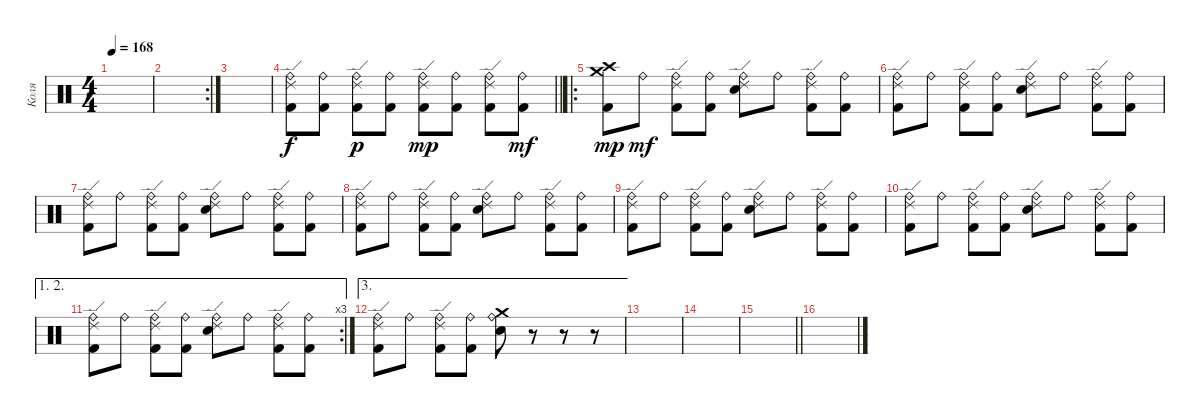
\track ("Коля" "Коля") {instrument percussion}
\staff {score}
\articulation defaults
\ts (4 4)
\tempo 168
\clef neutral
\ks c
|
\rc 2
|
|
\barLineRight lightlight
("Kick (hit) 2" "Ride (bell)" "Ride (edge) 2").8 ("Kick (hit) 2" "Ride (bell)").8 ("Kick (hit) 2" "Ride (bell)" "Ride (edge) 2").8{dy p} ("Kick (hit) 2" "Ride (bell)").8 ("Kick (hit) 2" "Ride (bell)" "Ride (edge) 2").8{dy mp} ("Kick (hit) 2" "Ride (bell)").8 ("Kick (hit) 2" "Ride (bell)" "Ride (edge) 2").8 ("Kick (hit) 2" "Ride (bell)").8{dy mf} |
\ro
\section ("" "")
("Kick (hit) 2" "Crash medium (hit)" "Crash high (hit)").8{dy mp} "Ride (bell)".8{dy mf} ("Kick (hit) 2" "Ride (bell)" "Ride (edge) 2").8 ("Kick (hit) 2" "Ride (bell)").8 ("Snare (hit) 2" "Ride (bell)" "Ride (edge) 2").8 "Ride (bell)".8 ("Kick (hit) 2" "Ride (bell)" "Ride (edge) 2").8 ("Kick (hit) 2" "Ride (bell)").8 |
("Kick (hit) 2" "Ride (bell)" "Ride (edge) 2").8 "Ride (bell)".8 ("Kick (hit) 2" "Ride (bell)" "Ride (edge) 2").8 ("Kick (hit) 2" "Ride (bell)").8 ("Snare (hit) 2" "Ride (bell)" "Ride (edge) 2").8 "Ride (bell)".8 ("Kick (hit) 2" "Ride (bell)" "Ride (edge) 2").8 ("Kick (hit) 2" "Ride (bell)").8 |
("Kick (hit) 2" "Ride (bell)" "Ride (edge) 2").8 "Ride (bell)".8 ("Kick (hit) 2" "Ride (bell)" "Ride (edge) 2").8 ("Kick (hit) 2" "Ride (bell)").8 ("Snare (hit) 2" "Ride (bell)" "Ride (edge) 2").8 "Ride (bell)".8 ("Kick (hit) 2" "Ride (bell)" "Ride (edge) 2").8 ("Kick (hit) 2" "Ride (bell)").8 |
("Kick (hit) 2" "Ride (bell)" "Ride (edge) 2").8 "Ride (bell)".8 ("Kick (hit) 2" "Ride (bell)" "Ride (edge) 2").8 ("Kick (hit) 2" "Ride (bell)").8 ("Snare (hit) 2" "Ride (bell)" "Ride (edge) 2").8 "Ride (bell)".8 ("Kick (hit) 2" "Ride (bell)" "Ride (edge) 2").8 ("Kick (hit) 2" "Ride (bell)").8 |
("Kick (hit) 2" "Ride (bell)" "Ride (edge) 2").8 "Ride (bell)".8 ("Kick (hit) 2" "Ride (bell)" "Ride (edge) 2").8 ("Kick (hit) 2" "Ride (bell)").8 ("Snare (hit) 2" "Ride (bell)" "Ride (edge) 2").8 "Ride (bell)".8 ("Kick (hit) 2" "Ride (bell)" "Ride (edge) 2").8 ("Kick (hit) 2" "Ride (bell)").8 |
("Kick (hit) 2" "Ride (bell)" "Ride (edge) 2").8 "Ride (bell)".8 ("Kick (hit) 2" "Ride (bell)" "Ride (edge) 2").8 ("Kick (hit) 2" "Ride (bell)").8 ("Snare (hit) 2" "Ride (bell)" "Ride (edge) 2").8 "Ride (bell)".8 ("Kick (hit) 2" "Ride (bell)" "Ride (edge) 2").8 ("Kick (hit) 2" "Ride (bell)").8 |
\ae (1 2)
\rc 3
("Kick (hit) 2" "Ride (bell)" "Ride (edge) 2").8 "Ride (bell)".8 ("Kick (hit) 2" "Ride (bell)" "Ride (edge) 2").8 ("Kick (hit) 2" "Ride (bell)").8 ("Snare (hit) 2" "Ride (bell)" "Ride (edge) 2").8 "Ride (bell)".8 ("Kick (hit) 2" "Ride (bell)" "Ride (edge) 2").8 ("Kick (hit) 2" "Ride (bell)").8 |
\ae 3
("Kick (hit) 2" "Ride (bell)" "Ride (edge) 2").8 "Ride (bell)".8 ("Kick (hit) 2" "Ride (bell)" "Ride (edge) 2").8 ("Kick (hit) 2" "Ride (bell)").8 ("Snare (hit) 2" "Ride (bell)" "Crash medium (hit)").8 r.8 r.8 r.8 |
|
|
\barLineRight lightlight
|
\section ("" "")
